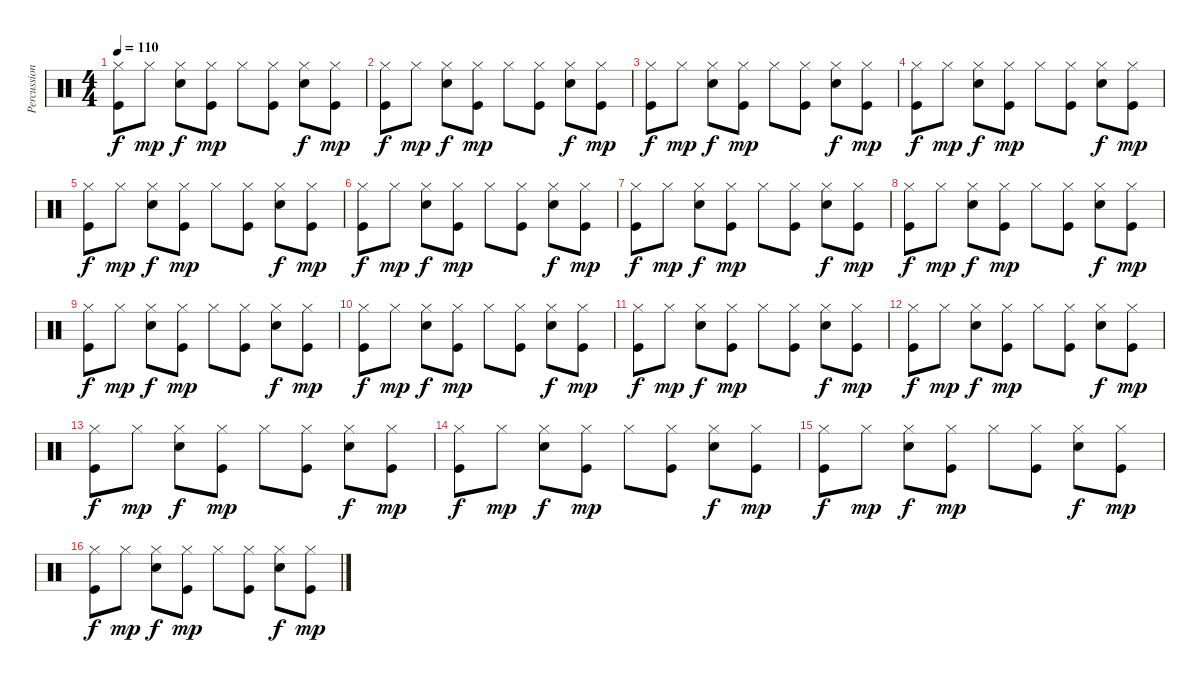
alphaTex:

\track ("Percussion" "Percussion") {instrument percussion}
\staff {score}
\articulation defaults
\ts (4 4)
\tempo 110
\clef neutral
\ks c
("Hi-Hat (closed)" "Kick (hit)").8{dy f} "Hi-Hat (closed)".8{dy mp} ("Hi-Hat (closed)" "Snare (hit) 2").8{dy f} ("Hi-Hat (closed)" "Kick (hit)").8{dy mp} "Hi-Hat (closed)".8 ("Hi-Hat (closed)" "Kick (hit)").8 ("Hi-Hat (closed)" "Snare (hit) 2").8{dy f} ("Hi-Hat (closed)" "Kick (hit)").8{dy mp} |
("Hi-Hat (closed)" "Kick (hit)").8{dy f} "Hi-Hat (closed)".8{dy mp} ("Hi-Hat (closed)" "Snare (hit) 2").8{dy f} ("Hi-Hat (closed)" "Kick (hit)").8{dy mp} "Hi-Hat (closed)".8 ("Hi-Hat (closed)" "Kick (hit)").8 ("Hi-Hat (closed)" "Snare (hit) 2").8{dy f} ("Hi-Hat (closed)" "Kick (hit)").8{dy mp} |
("Hi-Hat (closed)" "Kick (hit)").8{dy f} "Hi-Hat (closed)".8{dy mp} ("Hi-Hat (closed)" "Snare (hit) 2").8{dy f} ("Hi-Hat (closed)" "Kick (hit)").8{dy mp} "Hi-Hat (closed)".8 ("Hi-Hat (closed)" "Kick (hit)").8 ("Hi-Hat (closed)" "Snare (hit) 2").8{dy f} ("Hi-Hat (closed)" "Kick (hit)").8{dy mp} |
("Hi-Hat (closed)" "Kick (hit)").8{dy f} "Hi-Hat (closed)".8{dy mp} ("Hi-Hat (closed)" "Snare (hit) 2").8{dy f} ("Hi-Hat (closed)" "Kick (hit)").8{dy mp} "Hi-Hat (closed)".8 ("Hi-Hat (closed)" "Kick (hit)").8 ("Hi-Hat (closed)" "Snare (hit) 2").8{dy f} ("Hi-Hat (closed)" "Kick (hit)").8{dy mp} |
("Hi-Hat (closed)" "Kick (hit)").8{dy f} "Hi-Hat (closed)".8{dy mp} ("Hi-Hat (closed)" "Snare (hit) 2").8{dy f} ("Hi-Hat (closed)" "Kick (hit)").8{dy mp} "Hi-Hat (closed)".8 ("Hi-Hat (closed)" "Kick (hit)").8 ("Hi-Hat (closed)" "Snare (hit) 2").8{dy f} ("Hi-Hat (closed)" "Kick (hit)").8{dy mp} |
("Hi-Hat (closed)" "Kick (hit)").8{dy f} "Hi-Hat (closed)".8{dy mp} ("Hi-Hat (closed)" "Snare (hit) 2").8{dy f} ("Hi-Hat (closed)" "Kick (hit)").8{dy mp} "Hi-Hat (closed)".8 ("Hi-Hat (closed)" "Kick (hit)").8 ("Hi-Hat (closed)" "Snare (hit) 2").8{dy f} ("Hi-Hat (closed)" "Kick (hit)").8{dy mp} |
("Hi-Hat (closed)" "Kick (hit)").8{dy f} "Hi-Hat (closed)".8{dy mp} ("Hi-Hat (closed)" "Snare (hit) 2").8{dy f} ("Hi-Hat (closed)" "Kick (hit)").8{dy mp} "Hi-Hat (closed)".8 ("Hi-Hat (closed)" "Kick (hit)").8 ("Hi-Hat (closed)" "Snare (hit) 2").8{dy f} ("Hi-Hat (closed)" "Kick (hit)").8{dy mp} |
("Hi-Hat (closed)" "Kick (hit)").8{dy f} "Hi-Hat (closed)".8{dy mp} ("Hi-Hat (closed)" "Snare (hit) 2").8{dy f} ("Hi-Hat (closed)" "Kick (hit)").8{dy mp} "Hi-Hat (closed)".8 ("Hi-Hat (closed)" "Kick (hit)").8 ("Hi-Hat (closed)" "Snare (hit) 2").8{dy f} ("Hi-Hat (closed)" "Kick (hit)").8{dy mp} |
("Hi-Hat (closed)" "Kick (hit)").8{dy f} "Hi-Hat (closed)".8{dy mp} ("Hi-Hat (closed)" "Snare (hit) 2").8{dy f} ("Hi-Hat (closed)" "Kick (hit)").8{dy mp} "Hi-Hat (closed)".8 ("Hi-Hat (closed)" "Kick (hit)").8 ("Hi-Hat (closed)" "Snare (hit) 2").8{dy f} ("Hi-Hat (closed)" "Kick (hit)").8{dy mp} |
("Hi-Hat (closed)" "Kick (hit)").8{dy f} "Hi-Hat (closed)".8{dy mp} ("Hi-Hat (closed)" "Snare (hit) 2").8{dy f} ("Hi-Hat (closed)" "Kick (hit)").8{dy mp} "Hi-Hat (closed)".8 ("Hi-Hat (closed)" "Kick (hit)").8 ("Hi-Hat (closed)" "Snare (hit) 2").8{dy f} ("Hi-Hat (closed)" "Kick (hit)").8{dy mp} |
("Hi-Hat (closed)" "Kick (hit)").8{dy f} "Hi-Hat (closed)".8{dy mp} ("Hi-Hat (closed)" "Snare (hit) 2").8{dy f} ("Hi-Hat (closed)" "Kick (hit)").8{dy mp} "Hi-Hat (closed)".8 ("Hi-Hat (closed)" "Kick (hit)").8 ("Hi-Hat (closed)" "Snare (hit) 2").8{dy f} ("Hi-Hat (closed)" "Kick (hit)").8{dy mp} |
("Hi-Hat (closed)" "Kick (hit)").8{dy f} "Hi-Hat (closed)".8{dy mp} ("Hi-Hat (closed)" "Snare (hit) 2").8{dy f} ("Hi-Hat (closed)" "Kick (hit)").8{dy mp} "Hi-Hat (closed)".8 ("Hi-Hat (closed)" "Kick (hit)").8 ("Hi-Hat (closed)" "Snare (hit) 2").8{dy f} ("Hi-Hat (closed)" "Kick (hit)").8{dy mp} |
("Hi-Hat (closed)" "Kick (hit)").8{dy f} "Hi-Hat (closed)".8{dy mp} ("Hi-Hat (closed)" "Snare (hit) 2").8{dy f} ("Hi-Hat (closed)" "Kick (hit)").8{dy mp} "Hi-Hat (closed)".8 ("Hi-Hat (closed)" "Kick (hit)").8 ("Hi-Hat (closed)" "Snare (hit) 2").8{dy f} ("Hi-Hat (closed)" "Kick (hit)").8{dy mp} |
("Hi-Hat (closed)" "Kick (hit)").8{dy f} "Hi-Hat (closed)".8{dy mp} ("Hi-Hat (closed)" "Snare (hit) 2").8{dy f} ("Hi-Hat (closed)" "Kick (hit)").8{dy mp} "Hi-Hat (closed)".8 ("Hi-Hat (closed)" "Kick (hit)").8 ("Hi-Hat (closed)" "Snare (hit) 2").8{dy f} ("Hi-Hat (closed)" "Kick (hit)").8{dy mp} |
("Hi-Hat (closed)" "Kick (hit)").8{dy f} "Hi-Hat (closed)".8{dy mp} ("Hi-Hat (closed)" "Snare (hit) 2").8{dy f} ("Hi-Hat (closed)" "Kick (hit)").8{dy mp} "Hi-Hat (closed)".8 ("Hi-Hat (closed)" "Kick (hit)").8 ("Hi-Hat (closed)" "Snare (hit) 2").8{dy f} ("Hi-Hat (closed)" "Kick (hit)").8{dy mp} |
("Hi-Hat (closed)" "Kick (hit)").8{dy f} "Hi-Hat (closed)".8{dy mp} ("Hi-Hat (closed)" "Snare (hit) 2").8{dy f} ("Hi-Hat (closed)" "Kick (hit)").8{dy mp} "Hi-Hat (closed)".8 ("Hi-Hat (closed)" "Kick (hit)").8 ("Hi-Hat (closed)" "Snare (hit) 2").8{dy f} ("Hi-Hat (closed)" "Kick (hit)").8{dy mp}
